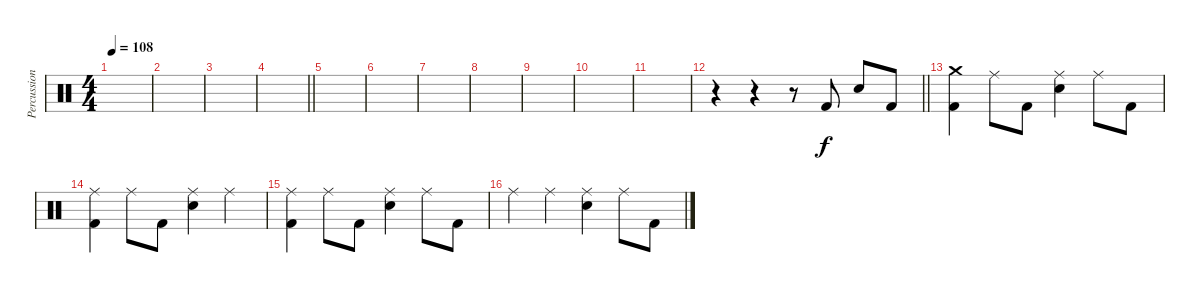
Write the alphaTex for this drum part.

\track ("Percussion" "Percussion") {instrument percussion}
\staff
\articulation defaults
\ts (4 4)
\section ("" "")
\tempo 108
\clef neutral
\ks c
|
|
|
\barLineRight lightlight
|
\section ("" "")
|
|
|
|
|
|
|
\barLineRight lightlight
r.4 r.4 r.8 "Kick (hit) 2".8 "Snare (hit) 2".8 "Kick (hit) 2".8 |
\section ("" "")
("Crash medium (hit)" "Kick (hit) 2").4 "Ride (middle)".8 "Kick (hit) 2".8 ("Ride (middle)" "Snare (hit) 2").4 "Ride (middle)".8 "Kick (hit) 2".8 |
("Ride (middle)" "Kick (hit) 2").4 "Ride (middle)".8 "Kick (hit) 2".8 ("Ride (middle)" "Snare (hit) 2").4 "Ride (middle)".4 |
("Ride (middle)" "Kick (hit) 2").4 "Ride (middle)".8 "Kick (hit) 2".8 ("Ride (middle)" "Snare (hit) 2").4 "Ride (middle)".8 "Kick (hit) 2".8 |
"Ride (middle)".4 "Ride (middle)".4 ("Ride (middle)" "Snare (hit) 2").4 "Ride (middle)".8 "Kick (hit) 2".8
